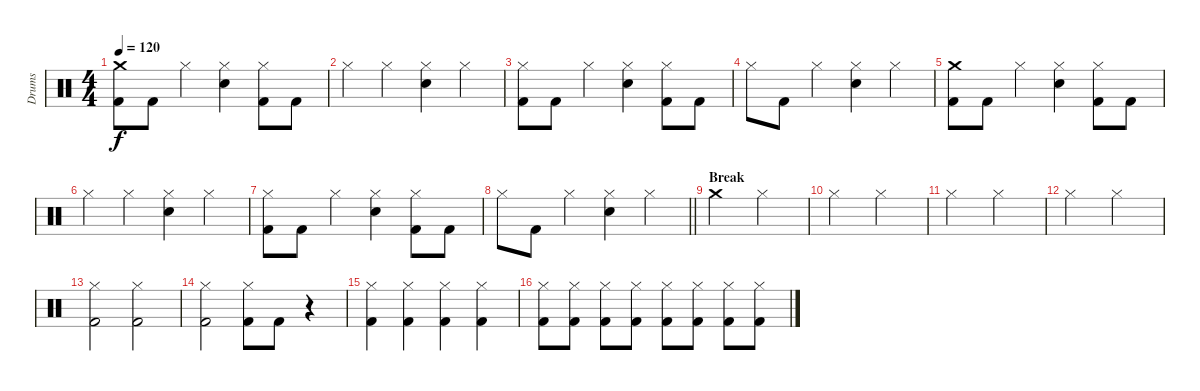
\track ("Drums" "Drums") {instrument percussion}
\staff {score}
\articulation defaults
\ts (4 4)
\tempo 120
\clef neutral
\ks c
("Crash medium (hit)" "Kick (hit) 2").8{dy f} "Kick (hit) 2".8 "Hi-Hat (closed)".4 ("Hi-Hat (closed)" "Snare (hit) 2").4 ("Hi-Hat (closed)" "Kick (hit) 2").8 "Kick (hit) 2".8 |
"Hi-Hat (closed)".4 "Hi-Hat (closed)".4 ("Hi-Hat (closed)" "Snare (hit) 2").4 "Hi-Hat (closed)".4 |
("Hi-Hat (closed)" "Kick (hit) 2").8 "Kick (hit) 2".8 "Hi-Hat (closed)".4 ("Hi-Hat (closed)" "Snare (hit) 2").4 ("Hi-Hat (closed)" "Kick (hit) 2").8 "Kick (hit) 2".8 |
"Hi-Hat (closed)".8 "Kick (hit) 2".8 "Hi-Hat (closed)".4 ("Hi-Hat (closed)" "Snare (hit) 2").4 "Hi-Hat (closed)".4 |
("Crash medium (hit)" "Kick (hit) 2").8 "Kick (hit) 2".8 "Hi-Hat (closed)".4 ("Hi-Hat (closed)" "Snare (hit) 2").4 ("Hi-Hat (closed)" "Kick (hit) 2").8 "Kick (hit) 2".8 |
"Hi-Hat (closed)".4 "Hi-Hat (closed)".4 ("Hi-Hat (closed)" "Snare (hit) 2").4 "Hi-Hat (closed)".4 |
("Hi-Hat (closed)" "Kick (hit) 2").8 "Kick (hit) 2".8 "Hi-Hat (closed)".4 ("Hi-Hat (closed)" "Snare (hit) 2").4 ("Hi-Hat (closed)" "Kick (hit) 2").8 "Kick (hit) 2".8 |
\barLineRight lightlight "Hi-Hat (closed)".8 "Kick (hit) 2".8 "Hi-Hat (closed)".4
("Hi-Hat (closed)" "Snare (hit) 2").4 "Hi-Hat (closed)".4 |
\section ("" "Break")
"Crash medium (hit)".2 "Hi-Hat (closed)".2 |
"Hi-Hat (closed)".2 "Hi-Hat (closed)".2 |
"Hi-Hat (closed)".2 "Hi-Hat (closed)".2 |
"Hi-Hat (closed)".2 "Hi-Hat (closed)".2 |
("Hi-Hat (closed)" "Kick (hit) 2").2 ("Hi-Hat (closed)" "Kick (hit) 2").2 |
("Hi-Hat (closed)" "Kick (hit) 2").2 ("Hi-Hat (closed)" "Kick (hit) 2").8 "Kick (hit) 2".8 r.4 |
("Hi-Hat (closed)" "Kick (hit) 2").4 ("Hi-Hat (closed)" "Kick (hit) 2").4 ("Hi-Hat (closed)" "Kick (hit) 2").4 ("Hi-Hat (closed)" "Kick (hit) 2").4 |
("Hi-Hat (closed)" "Kick (hit) 2").8 ("Hi-Hat (closed)" "Kick (hit) 2").8 ("Hi-Hat (closed)" "Kick (hit) 2").8 ("Hi-Hat (closed)" "Kick (hit) 2").8 ("Hi-Hat (closed)" "Kick (hit) 2").8 ("Hi-Hat (closed)" "Kick (hit) 2").8 ("Hi-Hat (closed)" "Kick (hit) 2").8 ("Hi-Hat (closed)" "Kick (hit) 2").8
